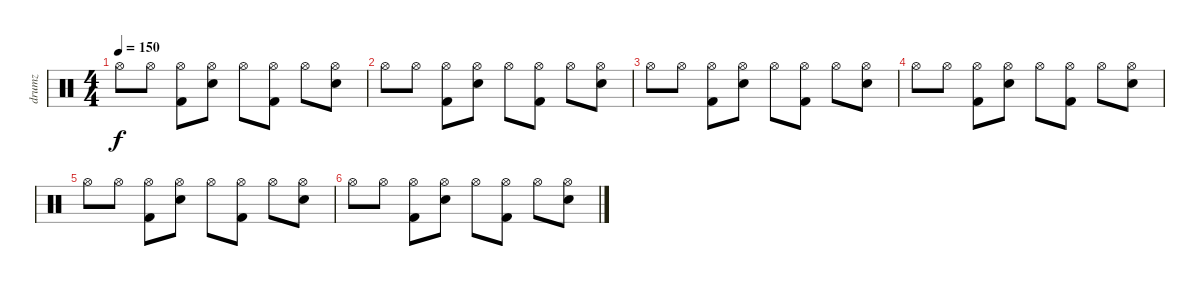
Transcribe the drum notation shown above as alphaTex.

\track ("drumz" "drumz") {instrument percussion}
\staff {score}
\articulation defaults
\ts (4 4)
\tempo 150
\clef neutral
\ks c "Hi-Hat (open)".8{dy f} "Hi-Hat (open)".8
("Hi-Hat (open)" "Kick (hit) 2").8 ("Hi-Hat (open)" "Electric Snare (hit)").8 "Hi-Hat (open)".8 ("Hi-Hat (open)" "Kick (hit) 2").8 "Hi-Hat (open)".8 ("Hi-Hat (open)" "Electric Snare (hit)").8 |
"Hi-Hat (open)".8 "Hi-Hat (open)".8 ("Hi-Hat (open)" "Kick (hit) 2").8 ("Hi-Hat (open)" "Electric Snare (hit)").8 "Hi-Hat (open)".8 ("Hi-Hat (open)" "Kick (hit) 2").8 "Hi-Hat (open)".8 ("Hi-Hat (open)" "Electric Snare (hit)").8 |
"Hi-Hat (open)".8 "Hi-Hat (open)".8 ("Hi-Hat (open)" "Kick (hit) 2").8 ("Hi-Hat (open)" "Electric Snare (hit)").8 "Hi-Hat (open)".8 ("Hi-Hat (open)" "Kick (hit) 2").8 "Hi-Hat (open)".8 ("Hi-Hat (open)" "Electric Snare (hit)").8 |
"Hi-Hat (open)".8 "Hi-Hat (open)".8 ("Hi-Hat (open)" "Kick (hit) 2").8 ("Hi-Hat (open)" "Electric Snare (hit)").8 "Hi-Hat (open)".8 ("Hi-Hat (open)" "Kick (hit) 2").8 "Hi-Hat (open)".8 ("Hi-Hat (open)" "Electric Snare (hit)").8 |
"Hi-Hat (open)".8 "Hi-Hat (open)".8 ("Hi-Hat (open)" "Kick (hit) 2").8 ("Hi-Hat (open)" "Electric Snare (hit)").8 "Hi-Hat (open)".8 ("Hi-Hat (open)" "Kick (hit) 2").8 "Hi-Hat (open)".8 ("Hi-Hat (open)" "Electric Snare (hit)").8 |
"Hi-Hat (open)".8 "Hi-Hat (open)".8 ("Hi-Hat (open)" "Kick (hit) 2").8 ("Hi-Hat (open)" "Electric Snare (hit)").8 "Hi-Hat (open)".8 ("Hi-Hat (open)" "Kick (hit) 2").8 "Hi-Hat (open)".8 ("Hi-Hat (open)" "Electric Snare (hit)").8
